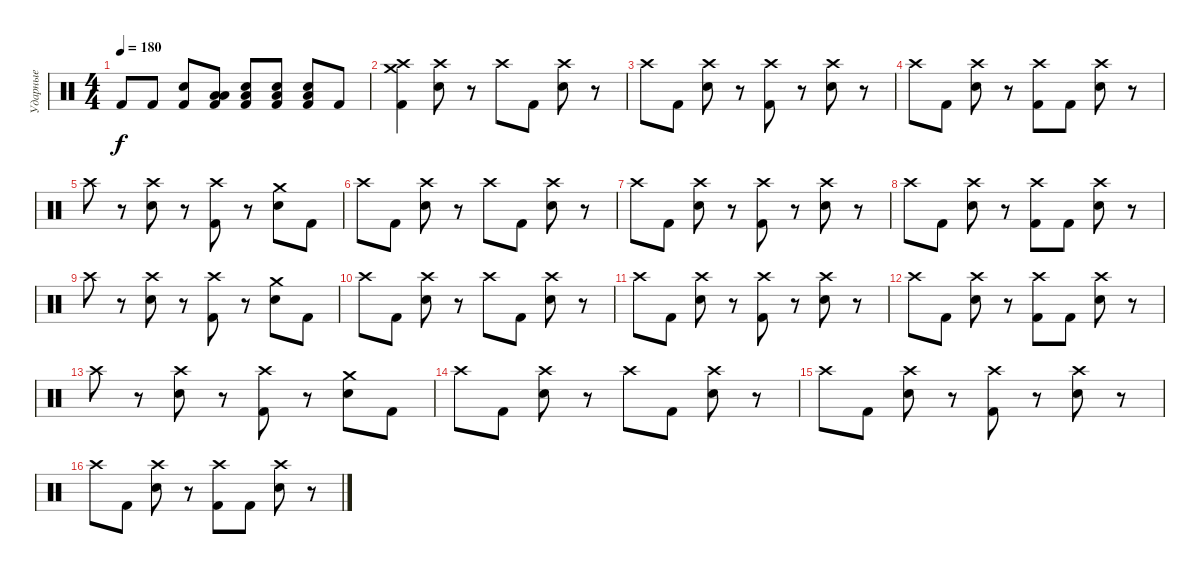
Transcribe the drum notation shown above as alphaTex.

\track ("Ударные" "Ударные") {instrument percussion}
\staff {score}
\articulation defaults
\ts (4 4)
\tempo 180
\clef neutral
\ks c "Kick (hit) 2".8{dy f} "Kick (hit) 2".8
("Electric Snare (hit)" "Kick (hit) 2").8 ("Low Tom (hit)" "Low Floor Tom (hit)" "Kick (hit) 2").8 ("Low Floor Tom (hit)" "Electric Snare (hit)" "Kick (hit) 2").8 ("Low Floor Tom (hit)" "Electric Snare (hit)" "Kick (hit) 2").8 ("Low Floor Tom (hit)" "Electric Snare (hit)" "Kick (hit) 2").8 "Kick (hit) 2".8 |
("Crash medium (hit)" "Crash high (hit)" "Kick (hit) 2").4 ("Crash high (hit)" "Electric Snare (hit)").8 r.8 "Crash high (hit)".8 "Kick (hit) 2".8 ("Crash high (hit)" "Electric Snare (hit)").8 r.8 |
"Crash high (hit)".8 "Kick (hit) 2".8 ("Crash high (hit)" "Electric Snare (hit)").8 r.8 ("Crash high (hit)" "Kick (hit) 2").8 r.8 ("Crash high (hit)" "Electric Snare (hit)").8 r.8 |
"Crash high (hit)".8 "Kick (hit) 2".8 ("Crash high (hit)" "Electric Snare (hit)").8 r.8 ("Crash high (hit)" "Kick (hit) 2").8 "Kick (hit) 2".8 ("Crash high (hit)" "Electric Snare (hit)").8 r.8 |
"Crash high (hit)".8 r.8 ("Crash high (hit)" "Electric Snare (hit)").8 r.8 ("Crash high (hit)" "Kick (hit) 2").8 r.8 ("Crash medium (hit)" "Electric Snare (hit)").8 "Kick (hit) 2".8 |
"Crash high (hit)".8 "Kick (hit) 2".8 ("Crash high (hit)" "Electric Snare (hit)").8 r.8 "Crash high (hit)".8 "Kick (hit) 2".8 ("Crash high (hit)" "Electric Snare (hit)").8 r.8 |
"Crash high (hit)".8 "Kick (hit) 2".8 ("Crash high (hit)" "Electric Snare (hit)").8 r.8 ("Crash high (hit)" "Kick (hit) 2").8 r.8 ("Crash high (hit)" "Electric Snare (hit)").8 r.8 |
"Crash high (hit)".8 "Kick (hit) 2".8 ("Crash high (hit)" "Electric Snare (hit)").8 r.8 ("Crash high (hit)" "Kick (hit) 2").8 "Kick (hit) 2".8 ("Crash high (hit)" "Electric Snare (hit)").8 r.8 |
"Crash high (hit)".8 r.8 ("Crash high (hit)" "Electric Snare (hit)").8 r.8 ("Crash high (hit)" "Kick (hit) 2").8 r.8 ("Crash medium (hit)" "Electric Snare (hit)").8 "Kick (hit) 2".8 |
"Crash high (hit)".8 "Kick (hit) 2".8 ("Crash high (hit)" "Electric Snare (hit)").8 r.8 "Crash high (hit)".8 "Kick (hit) 2".8 ("Crash high (hit)" "Electric Snare (hit)").8 r.8 |
"Crash high (hit)".8 "Kick (hit) 2".8 ("Crash high (hit)" "Electric Snare (hit)").8 r.8 ("Crash high (hit)" "Kick (hit) 2").8 r.8 ("Crash high (hit)" "Electric Snare (hit)").8 r.8 |
"Crash high (hit)".8 "Kick (hit) 2".8 ("Crash high (hit)" "Electric Snare (hit)").8 r.8 ("Crash high (hit)" "Kick (hit) 2").8 "Kick (hit) 2".8 ("Crash high (hit)" "Electric Snare (hit)").8 r.8 |
"Crash high (hit)".8 r.8 ("Crash high (hit)" "Electric Snare (hit)").8 r.8 ("Crash high (hit)" "Kick (hit) 2").8 r.8 ("Crash medium (hit)" "Electric Snare (hit)").8 "Kick (hit) 2".8 |
"Crash high (hit)".8 "Kick (hit) 2".8 ("Crash high (hit)" "Electric Snare (hit)").8 r.8 "Crash high (hit)".8 "Kick (hit) 2".8 ("Crash high (hit)" "Electric Snare (hit)").8 r.8 |
"Crash high (hit)".8 "Kick (hit) 2".8 ("Crash high (hit)" "Electric Snare (hit)").8 r.8 ("Crash high (hit)" "Kick (hit) 2").8 r.8 ("Crash high (hit)" "Electric Snare (hit)").8 r.8 |
"Crash high (hit)".8 "Kick (hit) 2".8 ("Crash high (hit)" "Electric Snare (hit)").8 r.8 ("Crash high (hit)" "Kick (hit) 2").8 "Kick (hit) 2".8 ("Crash high (hit)" "Electric Snare (hit)").8 r.8
